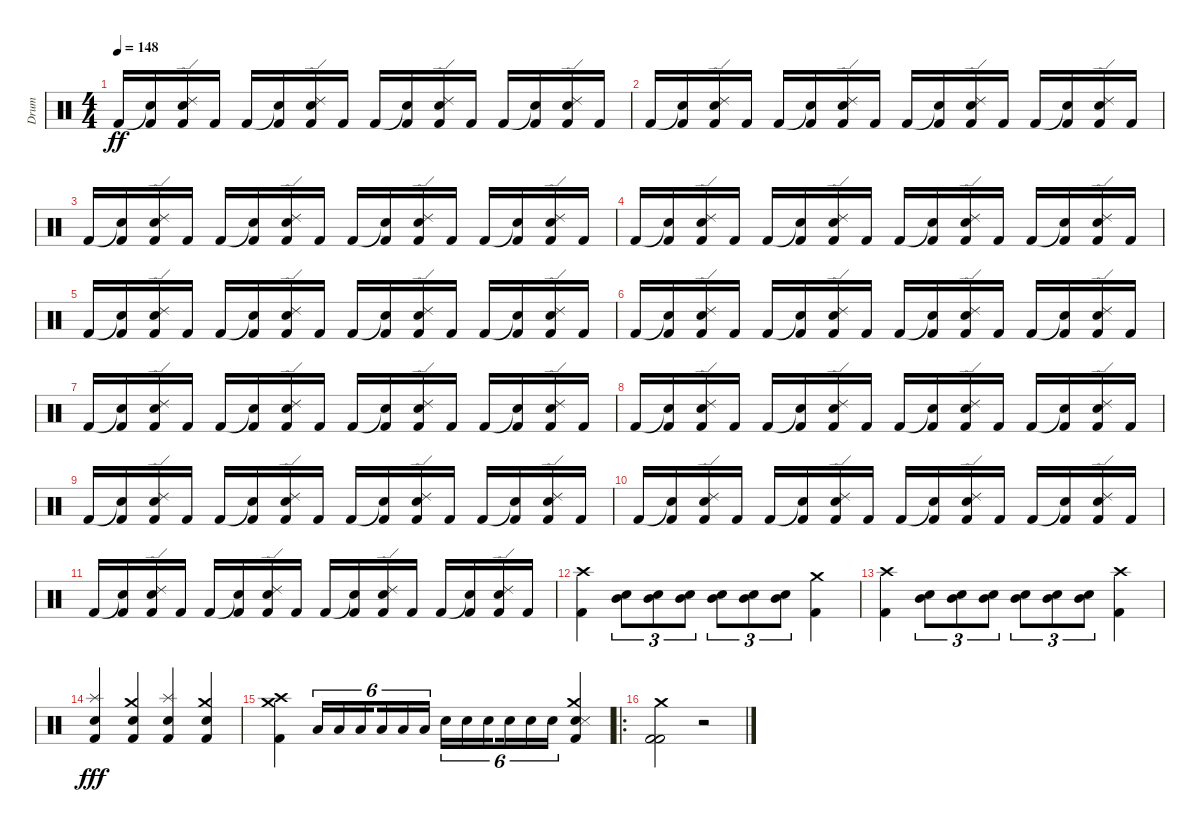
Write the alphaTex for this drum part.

\track ("Drum" "Drum") {instrument percussion}
\staff {score}
\articulation defaults
\ts (4 4)
\tempo 148
\clef neutral
\ks c "Kick (hit) 2".16{dy ff}
("Snare (hit)"{t} "Kick (hit) 2").16 ("Ride (edge) 2" "Snare (hit) 2" "Kick (hit) 2").16 "Kick (hit) 2".16 "Kick (hit) 2".16 ("Snare (hit)"{t} "Kick (hit) 2").16 ("Ride (edge) 2" "Snare (hit) 2" "Kick (hit) 2").16 "Kick (hit) 2".16 "Kick (hit) 2".16 ("Snare (hit)"{t} "Kick (hit) 2").16 ("Ride (edge) 2" "Snare (hit) 2" "Kick (hit) 2").16 "Kick (hit) 2".16 "Kick (hit) 2".16 ("Snare (hit)"{t} "Kick (hit) 2").16 ("Ride (edge) 2" "Snare (hit) 2" "Kick (hit) 2").16 "Kick (hit) 2".16 |
"Kick (hit) 2".16 ("Snare (hit)"{t} "Kick (hit) 2").16 ("Ride (edge) 2" "Snare (hit) 2" "Kick (hit) 2").16 "Kick (hit) 2".16 "Kick (hit) 2".16 ("Snare (hit)"{t} "Kick (hit) 2").16 ("Ride (edge) 2" "Snare (hit) 2" "Kick (hit) 2").16 "Kick (hit) 2".16 "Kick (hit) 2".16 ("Snare (hit)"{t} "Kick (hit) 2").16 ("Ride (edge) 2" "Snare (hit) 2" "Kick (hit) 2").16 "Kick (hit) 2".16 "Kick (hit) 2".16 ("Snare (hit)"{t} "Kick (hit) 2").16 ("Ride (edge) 2" "Snare (hit) 2" "Kick (hit) 2").16 "Kick (hit) 2".16 |
"Kick (hit) 2".16 ("Snare (hit)"{t} "Kick (hit) 2").16 ("Ride (edge) 2" "Snare (hit) 2" "Kick (hit) 2").16 "Kick (hit) 2".16 "Kick (hit) 2".16 ("Snare (hit)"{t} "Kick (hit) 2").16 ("Ride (edge) 2" "Snare (hit) 2" "Kick (hit) 2").16 "Kick (hit) 2".16 "Kick (hit) 2".16 ("Snare (hit)"{t} "Kick (hit) 2").16 ("Ride (edge) 2" "Snare (hit) 2" "Kick (hit) 2").16 "Kick (hit) 2".16 "Kick (hit) 2".16 ("Snare (hit)"{t} "Kick (hit) 2").16 ("Ride (edge) 2" "Snare (hit) 2" "Kick (hit) 2").16 "Kick (hit) 2".16 |
"Kick (hit) 2".16 ("Snare (hit)"{t} "Kick (hit) 2").16 ("Ride (edge) 2" "Snare (hit) 2" "Kick (hit) 2").16 "Kick (hit) 2".16 "Kick (hit) 2".16 ("Snare (hit)"{t} "Kick (hit) 2").16 ("Ride (edge) 2" "Snare (hit) 2" "Kick (hit) 2").16 "Kick (hit) 2".16 "Kick (hit) 2".16 ("Snare (hit)"{t} "Kick (hit) 2").16 ("Ride (edge) 2" "Snare (hit) 2" "Kick (hit) 2").16 "Kick (hit) 2".16 "Kick (hit) 2".16 ("Snare (hit)"{t} "Kick (hit) 2").16 ("Ride (edge) 2" "Snare (hit) 2" "Kick (hit) 2").16 "Kick (hit) 2".16 |
"Kick (hit) 2".16 ("Snare (hit)"{t} "Kick (hit) 2").16 ("Ride (edge) 2" "Snare (hit) 2" "Kick (hit) 2").16 "Kick (hit) 2".16 "Kick (hit) 2".16 ("Snare (hit)"{t} "Kick (hit) 2").16 ("Ride (edge) 2" "Snare (hit) 2" "Kick (hit) 2").16 "Kick (hit) 2".16 "Kick (hit) 2".16 ("Snare (hit)"{t} "Kick (hit) 2").16 ("Ride (edge) 2" "Snare (hit) 2" "Kick (hit) 2").16 "Kick (hit) 2".16 "Kick (hit) 2".16 ("Snare (hit)"{t} "Kick (hit) 2").16 ("Ride (edge) 2" "Snare (hit) 2" "Kick (hit) 2").16 "Kick (hit) 2".16 |
"Kick (hit) 2".16 ("Snare (hit)"{t} "Kick (hit) 2").16 ("Ride (edge) 2" "Snare (hit) 2" "Kick (hit) 2").16 "Kick (hit) 2".16 "Kick (hit) 2".16 ("Snare (hit)"{t} "Kick (hit) 2").16 ("Ride (edge) 2" "Snare (hit) 2" "Kick (hit) 2").16 "Kick (hit) 2".16 "Kick (hit) 2".16 ("Snare (hit)"{t} "Kick (hit) 2").16 ("Ride (edge) 2" "Snare (hit) 2" "Kick (hit) 2").16 "Kick (hit) 2".16 "Kick (hit) 2".16 ("Snare (hit)"{t} "Kick (hit) 2").16 ("Ride (edge) 2" "Snare (hit) 2" "Kick (hit) 2").16 "Kick (hit) 2".16 |
"Kick (hit) 2".16 ("Snare (hit)"{t} "Kick (hit) 2").16 ("Ride (edge) 2" "Snare (hit) 2" "Kick (hit) 2").16 "Kick (hit) 2".16 "Kick (hit) 2".16 ("Snare (hit)"{t} "Kick (hit) 2").16 ("Ride (edge) 2" "Snare (hit) 2" "Kick (hit) 2").16 "Kick (hit) 2".16 "Kick (hit) 2".16 ("Snare (hit)"{t} "Kick (hit) 2").16 ("Ride (edge) 2" "Snare (hit) 2" "Kick (hit) 2").16 "Kick (hit) 2".16 "Kick (hit) 2".16 ("Snare (hit)"{t} "Kick (hit) 2").16 ("Ride (edge) 2" "Snare (hit) 2" "Kick (hit) 2").16 "Kick (hit) 2".16 |
"Kick (hit) 2".16 ("Snare (hit)"{t} "Kick (hit) 2").16 ("Ride (edge) 2" "Snare (hit) 2" "Kick (hit) 2").16 "Kick (hit) 2".16 "Kick (hit) 2".16 ("Snare (hit)"{t} "Kick (hit) 2").16 ("Ride (edge) 2" "Snare (hit) 2" "Kick (hit) 2").16 "Kick (hit) 2".16 "Kick (hit) 2".16 ("Snare (hit)"{t} "Kick (hit) 2").16 ("Ride (edge) 2" "Snare (hit) 2" "Kick (hit) 2").16 "Kick (hit) 2".16 "Kick (hit) 2".16 ("Snare (hit)"{t} "Kick (hit) 2").16 ("Ride (edge) 2" "Snare (hit) 2" "Kick (hit) 2").16 "Kick (hit) 2".16 |
"Kick (hit) 2".16 ("Snare (hit)"{t} "Kick (hit) 2").16 ("Ride (edge) 2" "Snare (hit) 2" "Kick (hit) 2").16 "Kick (hit) 2".16 "Kick (hit) 2".16 ("Snare (hit)"{t} "Kick (hit) 2").16 ("Ride (edge) 2" "Snare (hit) 2" "Kick (hit) 2").16 "Kick (hit) 2".16 "Kick (hit) 2".16 ("Snare (hit)"{t} "Kick (hit) 2").16 ("Ride (edge) 2" "Snare (hit) 2" "Kick (hit) 2").16 "Kick (hit) 2".16 "Kick (hit) 2".16 ("Snare (hit)"{t} "Kick (hit) 2").16 ("Ride (edge) 2" "Snare (hit) 2" "Kick (hit) 2").16 "Kick (hit) 2".16 |
"Kick (hit) 2".16 ("Snare (hit)"{t} "Kick (hit) 2").16 ("Ride (edge) 2" "Snare (hit) 2" "Kick (hit) 2").16 "Kick (hit) 2".16 "Kick (hit) 2".16 ("Snare (hit)"{t} "Kick (hit) 2").16 ("Ride (edge) 2" "Snare (hit) 2" "Kick (hit) 2").16 "Kick (hit) 2".16 "Kick (hit) 2".16 ("Snare (hit)"{t} "Kick (hit) 2").16 ("Ride (edge) 2" "Snare (hit) 2" "Kick (hit) 2").16 "Kick (hit) 2".16 "Kick (hit) 2".16 ("Snare (hit)"{t} "Kick (hit) 2").16 ("Ride (edge) 2" "Snare (hit) 2" "Kick (hit) 2").16 "Kick (hit) 2".16 |
"Kick (hit) 2".16 ("Snare (hit)"{t} "Kick (hit) 2").16 ("Ride (edge) 2" "Snare (hit) 2" "Kick (hit) 2").16 "Kick (hit) 2".16 "Kick (hit) 2".16 ("Snare (hit)"{t} "Kick (hit) 2").16 ("Ride (edge) 2" "Snare (hit) 2" "Kick (hit) 2").16 "Kick (hit) 2".16 "Kick (hit) 2".16 ("Snare (hit)"{t} "Kick (hit) 2").16 ("Ride (edge) 2" "Snare (hit) 2" "Kick (hit) 2").16 "Kick (hit) 2".16 "Kick (hit) 2".16 ("Snare (hit)"{t} "Kick (hit) 2").16 ("Ride (edge) 2" "Snare (hit) 2" "Kick (hit) 2").16 "Kick (hit) 2".16 |
("Crash high (hit)" "Kick (hit) 2").4 ("Mid Tom (hit)" "Snare (hit) 2").8{tu (3 2)} ("Mid Tom (hit)" "Snare (hit) 2").8{tu (3 2)} ("Mid Tom (hit)" "Snare (hit) 2").8{tu (3 2)} ("Mid Tom (hit)" "Snare (hit) 2").8{tu (3 2)} ("Mid Tom (hit)" "Snare (hit) 2").8{tu (3 2)} ("Mid Tom (hit)" "Snare (hit) 2").8{tu (3 2)} ("Crash medium (hit)" "Kick (hit) 2").4 |
("Crash high (hit)" "Kick (hit) 2").4 ("Mid Tom (hit)" "Snare (hit) 2").8{tu (3 2)} ("Mid Tom (hit)" "Snare (hit) 2").8{tu (3 2)} ("Mid Tom (hit)" "Snare (hit) 2").8{tu (3 2)} ("Mid Tom (hit)" "Snare (hit) 2").8{tu (3 2)} ("Mid Tom (hit)" "Snare (hit) 2").8{tu (3 2)} ("Mid Tom (hit)" "Snare (hit) 2").8{tu (3 2)} ("Crash high (hit)" "Kick (hit) 2").4 |
("Splash (hit)" "Electric Snare (hit)" "Kick (hit) 2").4{dy fff} ("Crash medium (hit)" "Electric Snare (hit)" "Kick (hit) 2").4 ("Splash (hit)" "Electric Snare (hit)" "Kick (hit) 2").4 ("Crash medium (hit)" "Electric Snare (hit)" "Kick (hit) 2").4 |
("Crash medium (hit)" "Crash high (hit)" "Kick (hit) 2").4 "Low Tom (hit)".16{tu (6 4)} "Low Tom (hit)".16{tu (6 4)} "Low Tom (hit)".16{tu (6 4) beam splitsecondary} "Low Tom (hit)".16{tu (6 4)} "Low Tom (hit)".16{tu (6 4)} "Low Tom (hit)".16{tu (6 4)} "Snare (hit) 2".16{tu (6 4)} "Snare (hit) 2".16{tu (6 4)} "Snare (hit) 2".16{tu (6 4) beam splitsecondary} "Snare (hit) 2".16{tu (6 4)} "Snare (hit) 2".16{tu (6 4)} "Snare (hit) 2".16{tu (6 4)} ("Crash medium (hit)" "Snare (hit) 2" "Snare (side stick) 3" "Kick (hit) 2").4 |
\ro
("Crash medium (hit)" "Kick (hit) 2" "Kick (hit) 2").2 r.2
